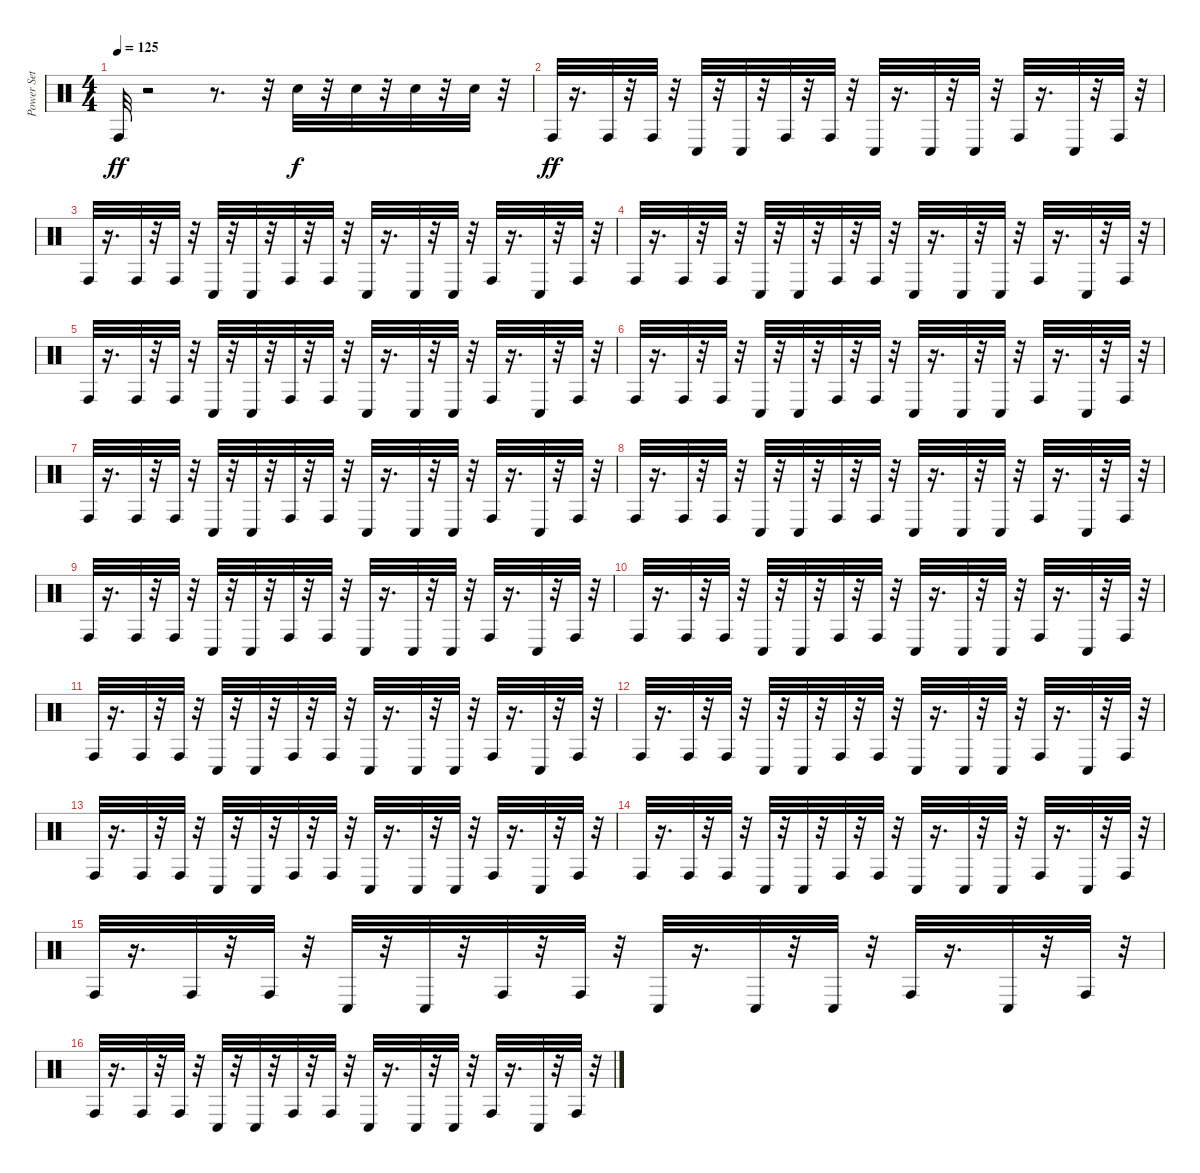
\track ("Power Set" "Power Set") {instrument percussion}
\staff {score}
\articulation defaults
\ts (4 4)
\tempo 125
\clef neutral
\ks c "Conga high (hit)".32{dy ff}
r.2 r.8{d} r.32 "Electric Snare (hit)".32{dy f} r.32 "Electric Snare (hit)".32 r.32 "Electric Snare (hit)".32 r.32 "Electric Snare (hit)".32 r.32 |
"Conga high (hit)".32{dy ff} r.16{d} "Conga high (hit)".32 r.32 "Conga high (hit)".32 r.32 "Conga low (hit)".32 r.32 "Conga low (hit)".32 r.32 "Conga high (hit)".32 r.32 "Conga high (hit)".32 r.32 "Conga low (hit)".32 r.16{d} "Conga low (hit)".32 r.32 "Conga low (hit)".32 r.32 "Conga high (hit)".32 r.16{d} "Conga low (hit)".32 r.32 "Conga high (hit)".32 r.32 |
"Conga high (hit)".32 r.16{d} "Conga high (hit)".32 r.32 "Conga high (hit)".32 r.32 "Conga low (hit)".32 r.32 "Conga low (hit)".32 r.32 "Conga high (hit)".32 r.32 "Conga high (hit)".32 r.32 "Conga low (hit)".32 r.16{d} "Conga low (hit)".32 r.32 "Conga low (hit)".32 r.32 "Conga high (hit)".32 r.16{d} "Conga low (hit)".32 r.32 "Conga high (hit)".32 r.32 |
"Conga high (hit)".32 r.16{d} "Conga high (hit)".32 r.32 "Conga high (hit)".32 r.32 "Conga low (hit)".32 r.32 "Conga low (hit)".32 r.32 "Conga high (hit)".32 r.32 "Conga high (hit)".32 r.32 "Conga low (hit)".32 r.16{d} "Conga low (hit)".32 r.32 "Conga low (hit)".32 r.32 "Conga high (hit)".32 r.16{d} "Conga low (hit)".32 r.32 "Conga high (hit)".32 r.32 |
"Conga high (hit)".32 r.16{d} "Conga high (hit)".32 r.32 "Conga high (hit)".32 r.32 "Conga low (hit)".32 r.32 "Conga low (hit)".32 r.32 "Conga high (hit)".32 r.32 "Conga high (hit)".32 r.32 "Conga low (hit)".32 r.16{d} "Conga low (hit)".32 r.32 "Conga low (hit)".32 r.32 "Conga high (hit)".32 r.16{d} "Conga low (hit)".32 r.32 "Conga high (hit)".32 r.32 |
"Conga high (hit)".32 r.16{d} "Conga high (hit)".32 r.32 "Conga high (hit)".32 r.32 "Conga low (hit)".32 r.32 "Conga low (hit)".32 r.32 "Conga high (hit)".32 r.32 "Conga high (hit)".32 r.32 "Conga low (hit)".32 r.16{d} "Conga low (hit)".32 r.32 "Conga low (hit)".32 r.32 "Conga high (hit)".32 r.16{d} "Conga low (hit)".32 r.32 "Conga high (hit)".32 r.32 |
"Conga high (hit)".32 r.16{d} "Conga high (hit)".32 r.32 "Conga high (hit)".32 r.32 "Conga low (hit)".32 r.32 "Conga low (hit)".32 r.32 "Conga high (hit)".32 r.32 "Conga high (hit)".32 r.32 "Conga low (hit)".32 r.16{d} "Conga low (hit)".32 r.32 "Conga low (hit)".32 r.32 "Conga high (hit)".32 r.16{d} "Conga low (hit)".32 r.32 "Conga high (hit)".32 r.32 |
"Conga high (hit)".32 r.16{d} "Conga high (hit)".32 r.32 "Conga high (hit)".32 r.32 "Conga low (hit)".32 r.32 "Conga low (hit)".32 r.32 "Conga high (hit)".32 r.32 "Conga high (hit)".32 r.32 "Conga low (hit)".32 r.16{d} "Conga low (hit)".32 r.32 "Conga low (hit)".32 r.32 "Conga high (hit)".32 r.16{d} "Conga low (hit)".32 r.32 "Conga high (hit)".32 r.32 |
"Conga high (hit)".32 r.16{d} "Conga high (hit)".32 r.32 "Conga high (hit)".32 r.32 "Conga low (hit)".32 r.32 "Conga low (hit)".32 r.32 "Conga high (hit)".32 r.32 "Conga high (hit)".32 r.32 "Conga low (hit)".32 r.16{d} "Conga low (hit)".32 r.32 "Conga low (hit)".32 r.32 "Conga high (hit)".32 r.16{d} "Conga low (hit)".32 r.32 "Conga high (hit)".32 r.32 |
"Conga high (hit)".32 r.16{d} "Conga high (hit)".32 r.32 "Conga high (hit)".32 r.32 "Conga low (hit)".32 r.32 "Conga low (hit)".32 r.32 "Conga high (hit)".32 r.32 "Conga high (hit)".32 r.32 "Conga low (hit)".32 r.16{d} "Conga low (hit)".32 r.32 "Conga low (hit)".32 r.32 "Conga high (hit)".32 r.16{d} "Conga low (hit)".32 r.32 "Conga high (hit)".32 r.32 |
"Conga high (hit)".32 r.16{d} "Conga high (hit)".32 r.32 "Conga high (hit)".32 r.32 "Conga low (hit)".32 r.32 "Conga low (hit)".32 r.32 "Conga high (hit)".32 r.32 "Conga high (hit)".32 r.32 "Conga low (hit)".32 r.16{d} "Conga low (hit)".32 r.32 "Conga low (hit)".32 r.32 "Conga high (hit)".32 r.16{d} "Conga low (hit)".32 r.32 "Conga high (hit)".32 r.32 |
"Conga high (hit)".32 r.16{d} "Conga high (hit)".32 r.32 "Conga high (hit)".32 r.32 "Conga low (hit)".32 r.32 "Conga low (hit)".32 r.32 "Conga high (hit)".32 r.32 "Conga high (hit)".32 r.32 "Conga low (hit)".32 r.16{d} "Conga low (hit)".32 r.32 "Conga low (hit)".32 r.32 "Conga high (hit)".32 r.16{d} "Conga low (hit)".32 r.32 "Conga high (hit)".32 r.32 |
"Conga high (hit)".32 r.16{d} "Conga high (hit)".32 r.32 "Conga high (hit)".32 r.32 "Conga low (hit)".32 r.32 "Conga low (hit)".32 r.32 "Conga high (hit)".32 r.32 "Conga high (hit)".32 r.32 "Conga low (hit)".32 r.16{d} "Conga low (hit)".32 r.32 "Conga low (hit)".32 r.32 "Conga high (hit)".32 r.16{d} "Conga low (hit)".32 r.32 "Conga high (hit)".32 r.32 |
"Conga high (hit)".32 r.16{d} "Conga high (hit)".32 r.32 "Conga high (hit)".32 r.32 "Conga low (hit)".32 r.32 "Conga low (hit)".32 r.32 "Conga high (hit)".32 r.32 "Conga high (hit)".32 r.32 "Conga low (hit)".32 r.16{d} "Conga low (hit)".32 r.32 "Conga low (hit)".32 r.32 "Conga high (hit)".32 r.16{d} "Conga low (hit)".32 r.32 "Conga high (hit)".32 r.32 |
"Conga high (hit)".32 r.16{d} "Conga high (hit)".32 r.32 "Conga high (hit)".32 r.32 "Conga low (hit)".32 r.32 "Conga low (hit)".32 r.32 "Conga high (hit)".32 r.32 "Conga high (hit)".32 r.32 "Conga low (hit)".32 r.16{d} "Conga low (hit)".32 r.32 "Conga low (hit)".32 r.32 "Conga high (hit)".32 r.16{d} "Conga low (hit)".32 r.32 "Conga high (hit)".32 r.32 |
"Conga high (hit)".32 r.16{d} "Conga high (hit)".32 r.32 "Conga high (hit)".32 r.32 "Conga low (hit)".32 r.32 "Conga low (hit)".32 r.32 "Conga high (hit)".32 r.32 "Conga high (hit)".32 r.32 "Conga low (hit)".32 r.16{d} "Conga low (hit)".32 r.32 "Conga low (hit)".32 r.32 "Conga high (hit)".32 r.16{d} "Conga low (hit)".32 r.32 "Conga high (hit)".32 r.32
